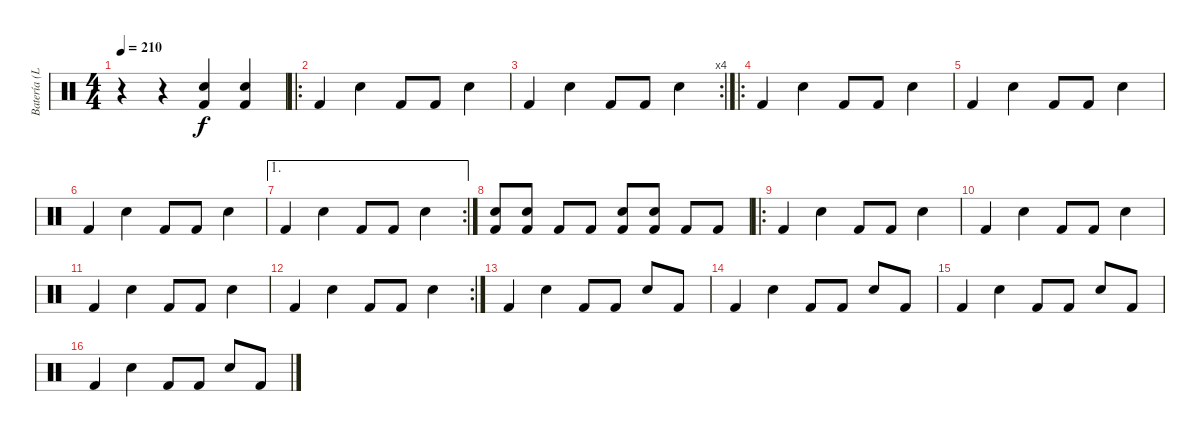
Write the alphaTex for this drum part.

\track ("Batería (Leo)" "Batería (L") {instrument percussion}
\staff {score}
\articulation defaults
\ts (4 4)
\tempo 210
\clef neutral
\ks c
r.4{dy f} r.4 ("Kick (hit) 2" "Snare (hit) 2").4 ("Kick (hit) 2" "Snare (hit) 2").4 |
\ro "Kick (hit) 2".4 "Snare (hit) 2".4 "Kick (hit) 2".8 "Kick (hit) 2".8 "Snare (hit) 2".4
|
\rc 4 "Kick (hit) 2".4 "Snare (hit) 2".4 "Kick (hit) 2".8 "Kick (hit) 2".8 "Snare (hit) 2".4
|
\ro "Kick (hit) 2".4 "Snare (hit) 2".4 "Kick (hit) 2".8 "Kick (hit) 2".8 "Snare (hit) 2".4
|
"Kick (hit) 2".4 "Snare (hit) 2".4 "Kick (hit) 2".8 "Kick (hit) 2".8 "Snare (hit) 2".4 |
"Kick (hit) 2".4 "Snare (hit) 2".4 "Kick (hit) 2".8 "Kick (hit) 2".8 "Snare (hit) 2".4 |
\ae 1
\rc 2 "Kick (hit) 2".4 "Snare (hit) 2".4 "Kick (hit) 2".8 "Kick (hit) 2".8 "Snare (hit) 2".4
|
("Kick (hit) 2" "Snare (hit) 2").8 ("Kick (hit) 2" "Snare (hit) 2").8 "Kick (hit) 2".8 "Kick (hit) 2".8 ("Kick (hit) 2" "Snare (hit) 2").8 ("Kick (hit) 2" "Snare (hit) 2").8 "Kick (hit) 2".8 "Kick (hit) 2".8 |
\ro "Kick (hit) 2".4 "Snare (hit) 2".4 "Kick (hit) 2".8 "Kick (hit) 2".8 "Snare (hit) 2".4
|
"Kick (hit) 2".4 "Snare (hit) 2".4 "Kick (hit) 2".8 "Kick (hit) 2".8 "Snare (hit) 2".4 |
"Kick (hit) 2".4 "Snare (hit) 2".4 "Kick (hit) 2".8 "Kick (hit) 2".8 "Snare (hit) 2".4 |
\rc 2 "Kick (hit) 2".4 "Snare (hit) 2".4 "Kick (hit) 2".8 "Kick (hit) 2".8 "Snare (hit) 2".4
|
"Kick (hit) 2".4 "Snare (hit) 2".4 "Kick (hit) 2".8 "Kick (hit) 2".8 "Snare (hit) 2".8 "Kick (hit) 2".8 |
"Kick (hit) 2".4 "Snare (hit) 2".4 "Kick (hit) 2".8 "Kick (hit) 2".8 "Snare (hit) 2".8 "Kick (hit) 2".8 |
"Kick (hit) 2".4 "Snare (hit) 2".4 "Kick (hit) 2".8 "Kick (hit) 2".8 "Snare (hit) 2".8 "Kick (hit) 2".8 |
"Kick (hit) 2".4 "Snare (hit) 2".4 "Kick (hit) 2".8 "Kick (hit) 2".8 "Snare (hit) 2".8 "Kick (hit) 2".8
